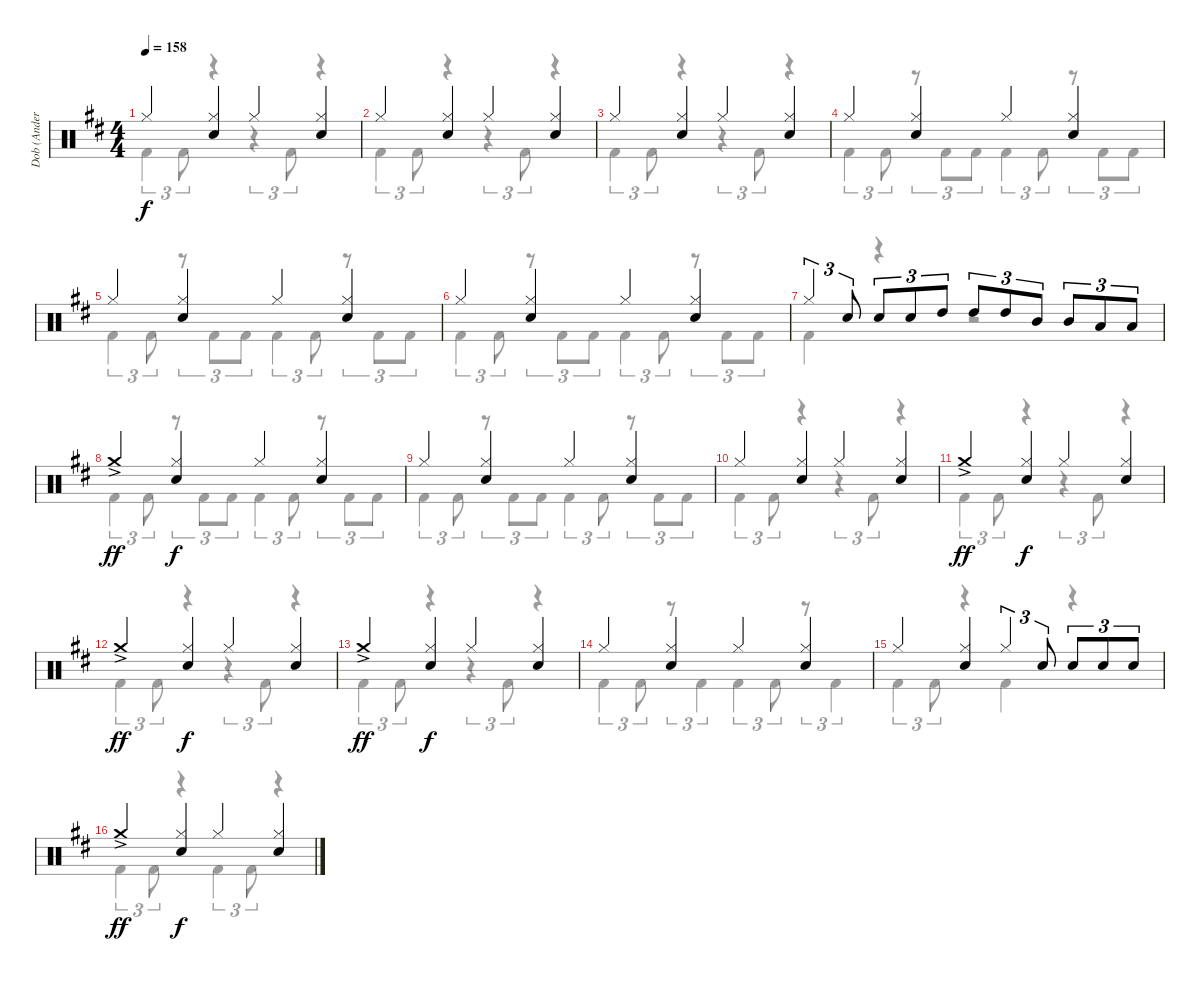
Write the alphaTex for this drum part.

\track ("Dob (Anders Johansson)" "Dob (Ander") {instrument percussion}
\staff {score}
\articulation defaults
\voice
\ts (4 4)
\tempo 158
\clef neutral
\ks d "Hi-Hat (closed)".4{dy f}
("Hi-Hat (closed)" "Electric Snare (hit)").4 "Hi-Hat (closed)".4 ("Hi-Hat (closed)" "Electric Snare (hit)").4 |
"Hi-Hat (closed)".4 ("Hi-Hat (closed)" "Electric Snare (hit)").4 "Hi-Hat (closed)".4 ("Hi-Hat (closed)" "Electric Snare (hit)").4 |
"Hi-Hat (closed)".4 ("Hi-Hat (closed)" "Electric Snare (hit)").4 "Hi-Hat (closed)".4 ("Hi-Hat (closed)" "Electric Snare (hit)").4 |
"Hi-Hat (closed)".4 ("Hi-Hat (closed)" "Electric Snare (hit)").4 "Hi-Hat (closed)".4 ("Hi-Hat (closed)" "Electric Snare (hit)").4 |
"Hi-Hat (closed)".4 ("Hi-Hat (closed)" "Electric Snare (hit)").4 "Hi-Hat (closed)".4 ("Hi-Hat (closed)" "Electric Snare (hit)").4 |
"Hi-Hat (closed)".4 ("Hi-Hat (closed)" "Electric Snare (hit)").4 "Hi-Hat (closed)".4 ("Hi-Hat (closed)" "Electric Snare (hit)").4 |
"Hi-Hat (closed)".4{tu (3 2)} "Electric Snare (hit)".8{tu (3 2)} "Electric Snare (hit)".8{tu (3 2)} "Electric Snare (hit)".8{tu (3 2)} "High Tom (hit)".8{tu (3 2)} "High Tom (hit)".8{tu (3 2)} "High Tom (hit)".8{tu (3 2)} "Mid Tom (hit)".8{tu (3 2)} "Mid Tom (hit)".8{tu (3 2)} "Low Tom (hit)".8{tu (3 2)} "Low Tom (hit)".8{tu (3 2)} |
"Crash medium (hit)"{ac}.4{dy ff} ("Hi-Hat (closed)" "Electric Snare (hit)").4{dy f} "Hi-Hat (closed)".4 ("Hi-Hat (closed)" "Electric Snare (hit)").4 |
"Hi-Hat (closed)".4 ("Hi-Hat (closed)" "Electric Snare (hit)").4 "Hi-Hat (closed)".4 ("Hi-Hat (closed)" "Electric Snare (hit)").4 |
"Hi-Hat (closed)".4 ("Hi-Hat (closed)" "Electric Snare (hit)").4 "Hi-Hat (closed)".4 ("Hi-Hat (closed)" "Electric Snare (hit)").4 |
"Crash medium (hit)"{ac}.4{dy ff} ("Hi-Hat (closed)" "Electric Snare (hit)").4{dy f} "Hi-Hat (closed)".4 ("Hi-Hat (closed)" "Electric Snare (hit)").4 |
"Crash medium (hit)"{ac}.4{dy ff} ("Hi-Hat (closed)" "Electric Snare (hit)").4{dy f} "Hi-Hat (closed)".4 ("Hi-Hat (closed)" "Electric Snare (hit)").4 |
"Crash medium (hit)"{ac}.4{dy ff} ("Hi-Hat (closed)" "Electric Snare (hit)").4{dy f} "Hi-Hat (closed)".4 ("Hi-Hat (closed)" "Electric Snare (hit)").4 |
"Hi-Hat (closed)".4 ("Hi-Hat (closed)" "Electric Snare (hit)").4 "Hi-Hat (closed)".4 ("Hi-Hat (closed)" "Electric Snare (hit)").4 |
"Hi-Hat (closed)".4 ("Hi-Hat (closed)" "Electric Snare (hit)").4 "Hi-Hat (closed)".4{tu (3 2)} "Electric Snare (hit)".8{tu (3 2)} "Electric Snare (hit)".8{tu (3 2)} "Electric Snare (hit)".8{tu (3 2)} "Electric Snare (hit)".8{tu (3 2)} |
"Crash medium (hit)"{ac}.4{dy ff} ("Hi-Hat (closed)" "Electric Snare (hit)").4{dy f} "Hi-Hat (closed)".4 ("Hi-Hat (closed)" "Electric Snare (hit)").4
\voice
\clef neutral
\ottava regular
\simile none
\ks d "Kick (hit) 2".4{tu (3 2) dy f} "Kick (hit) 2".8{tu (3 2)}
r.4 r.4{tu (3 2)} "Kick (hit) 2".8{tu (3 2)} r.4 |
"Kick (hit) 2".4{tu (3 2)} "Kick (hit) 2".8{tu (3 2)} r.4 r.4{tu (3 2)} "Kick (hit) 2".8{tu (3 2)} r.4 |
"Kick (hit) 2".4{tu (3 2)} "Kick (hit) 2".8{tu (3 2)} r.4 r.4{tu (3 2)} "Kick (hit) 2".8{tu (3 2)} r.4 |
"Kick (hit) 2".4{tu (3 2)} "Kick (hit) 2".8{tu (3 2)} r.8{tu (3 2)} "Kick (hit) 2".8{tu (3 2)} "Kick (hit) 2".8{tu (3 2)} "Kick (hit) 2".4{tu (3 2)} "Kick (hit) 2".8{tu (3 2)} r.8{tu (3 2)} "Kick (hit) 2".8{tu (3 2)} "Kick (hit) 2".8{tu (3 2)} |
"Kick (hit) 2".4{tu (3 2)} "Kick (hit) 2".8{tu (3 2)} r.8{tu (3 2)} "Kick (hit) 2".8{tu (3 2)} "Kick (hit) 2".8{tu (3 2)} "Kick (hit) 2".4{tu (3 2)} "Kick (hit) 2".8{tu (3 2)} r.8{tu (3 2)} "Kick (hit) 2".8{tu (3 2)} "Kick (hit) 2".8{tu (3 2)} |
"Kick (hit) 2".4{tu (3 2)} "Kick (hit) 2".8{tu (3 2)} r.8{tu (3 2)} "Kick (hit) 2".8{tu (3 2)} "Kick (hit) 2".8{tu (3 2)} "Kick (hit) 2".4{tu (3 2)} "Kick (hit) 2".8{tu (3 2)} r.8{tu (3 2)} "Kick (hit) 2".8{tu (3 2)} "Kick (hit) 2".8{tu (3 2)} |
"Kick (hit) 2".4 r.4 r.2 |
"Kick (hit) 2".4{tu (3 2)} "Kick (hit) 2".8{tu (3 2)} r.8{tu (3 2)} "Kick (hit) 2".8{tu (3 2)} "Kick (hit) 2".8{tu (3 2)} "Kick (hit) 2".4{tu (3 2)} "Kick (hit) 2".8{tu (3 2)} r.8{tu (3 2)} "Kick (hit) 2".8{tu (3 2)} "Kick (hit) 2".8{tu (3 2)} |
"Kick (hit) 2".4{tu (3 2)} "Kick (hit) 2".8{tu (3 2)} r.8{tu (3 2)} "Kick (hit) 2".8{tu (3 2)} "Kick (hit) 2".8{tu (3 2)} "Kick (hit) 2".4{tu (3 2)} "Kick (hit) 2".8{tu (3 2)} r.8{tu (3 2)} "Kick (hit) 2".8{tu (3 2)} "Kick (hit) 2".8{tu (3 2)} |
"Kick (hit) 2".4{tu (3 2)} "Kick (hit) 2".8{tu (3 2)} r.4 r.4{tu (3 2)} "Kick (hit) 2".8{tu (3 2)} r.4 |
"Kick (hit) 2".4{tu (3 2)} "Kick (hit) 2".8{tu (3 2)} r.4 r.4{tu (3 2)} "Kick (hit) 2".8{tu (3 2)} r.4 |
"Kick (hit) 2".4{tu (3 2)} "Kick (hit) 2".8{tu (3 2)} r.4 r.4{tu (3 2)} "Kick (hit) 2".8{tu (3 2)} r.4 |
"Kick (hit) 2".4{tu (3 2)} "Kick (hit) 2".8{tu (3 2)} r.4 r.4{tu (3 2)} "Kick (hit) 2".8{tu (3 2)} r.4 |
"Kick (hit) 2".4{tu (3 2)} "Kick (hit) 2".8{tu (3 2)} r.8{tu (3 2)} "Kick (hit) 2".4{tu (3 2)} "Kick (hit) 2".4{tu (3 2)} "Kick (hit) 2".8{tu (3 2)} r.8{tu (3 2)} "Kick (hit) 2".4{tu (3 2)} |
"Kick (hit) 2".4{tu (3 2)} "Kick (hit) 2".8{tu (3 2)} r.4 "Kick (hit) 2".4 r.4 |
"Kick (hit) 2".4{tu (3 2)} "Kick (hit) 2".8{tu (3 2)} r.4 "Kick (hit) 2".4{tu (3 2)} "Kick (hit) 2".8{tu (3 2)} r.4
